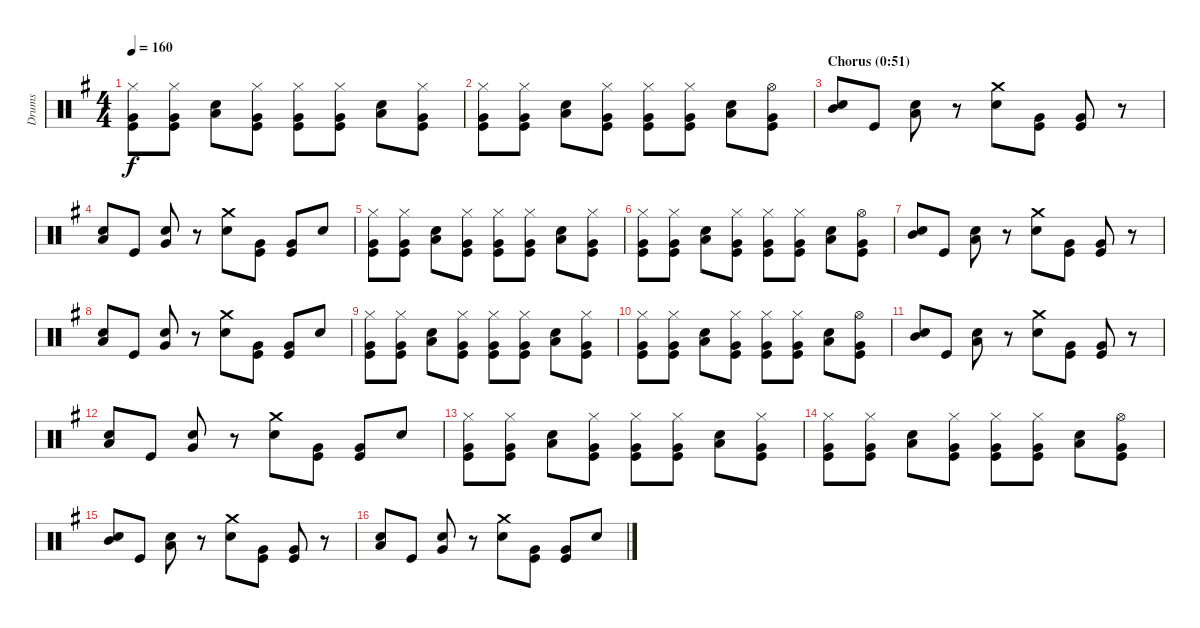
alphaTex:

\track ("Drums" "Drums") {instrument percussion}
\staff {score}
\articulation defaults
\ts (4 4)
\tempo 160
\clef neutral
\ks g
("Hi-Hat (closed)" "Very Low Tom (hit)" "Kick (hit)").8{dy f} ("Hi-Hat (closed)" "Very Low Tom (hit)" "Kick (hit)").8 ("Snare (hit) 2" "Low Tom (hit)").8 ("Hi-Hat (closed)" "Very Low Tom (hit)" "Kick (hit)").8 ("Hi-Hat (closed)" "Very Low Tom (hit)" "Kick (hit)").8 ("Hi-Hat (closed)" "Very Low Tom (hit)" "Kick (hit)").8 ("Snare (hit) 2" "Low Tom (hit)").8 ("Hi-Hat (closed)" "Very Low Tom (hit)" "Kick (hit)").8 |
("Hi-Hat (closed)" "Very Low Tom (hit)" "Kick (hit)").8 ("Hi-Hat (closed)" "Very Low Tom (hit)" "Kick (hit)").8 ("Snare (hit) 2" "Low Tom (hit)").8 ("Hi-Hat (closed)" "Very Low Tom (hit)" "Kick (hit)").8 ("Hi-Hat (closed)" "Very Low Tom (hit)" "Kick (hit)").8 ("Hi-Hat (closed)" "Very Low Tom (hit)" "Kick (hit)").8 ("Snare (hit) 2" "Low Tom (hit)").8 ("Hi-Hat (open)" "Very Low Tom (hit)" "Kick (hit)").8 |
\section ("" "Chorus (0:51)")
("Snare (hit) 2" "Mid Tom (hit)").8 "Kick (hit)".8 ("Snare (hit) 2" "Low Tom (hit)").8 r.8 ("Crash medium (hit)" "Snare (hit) 2").8 ("Very Low Tom (hit)" "Kick (hit)").8 ("Very Low Tom (hit)" "Kick (hit)").8 r.8 |
("Snare (hit) 2" "Low Tom (hit)").8 "Kick (hit)".8 ("Snare (hit) 2" "Very Low Tom (hit)").8 r.8 ("Crash medium (hit)" "Snare (hit) 2").8 ("Very Low Tom (hit)" "Kick (hit)").8 ("Very Low Tom (hit)" "Kick (hit)").8 "Snare (hit) 2".8 |
("Hi-Hat (closed)" "Very Low Tom (hit)" "Kick (hit)").8 ("Hi-Hat (closed)" "Very Low Tom (hit)" "Kick (hit)").8 ("Snare (hit) 2" "Low Tom (hit)").8 ("Hi-Hat (closed)" "Very Low Tom (hit)" "Kick (hit)").8 ("Hi-Hat (closed)" "Very Low Tom (hit)" "Kick (hit)").8 ("Hi-Hat (closed)" "Very Low Tom (hit)" "Kick (hit)").8 ("Snare (hit) 2" "Low Tom (hit)").8 ("Hi-Hat (closed)" "Very Low Tom (hit)" "Kick (hit)").8 |
("Hi-Hat (closed)" "Very Low Tom (hit)" "Kick (hit)").8 ("Hi-Hat (closed)" "Very Low Tom (hit)" "Kick (hit)").8 ("Snare (hit) 2" "Low Tom (hit)").8 ("Hi-Hat (closed)" "Very Low Tom (hit)" "Kick (hit)").8 ("Hi-Hat (closed)" "Very Low Tom (hit)" "Kick (hit)").8 ("Hi-Hat (closed)" "Very Low Tom (hit)" "Kick (hit)").8 ("Snare (hit) 2" "Low Tom (hit)").8 ("Hi-Hat (open)" "Very Low Tom (hit)" "Kick (hit)").8 |
("Snare (hit) 2" "Mid Tom (hit)").8 "Kick (hit)".8 ("Snare (hit) 2" "Low Tom (hit)").8 r.8 ("Crash medium (hit)" "Snare (hit) 2").8 ("Very Low Tom (hit)" "Kick (hit)").8 ("Very Low Tom (hit)" "Kick (hit)").8 r.8 |
("Snare (hit) 2" "Low Tom (hit)").8 "Kick (hit)".8 ("Snare (hit) 2" "Very Low Tom (hit)").8 r.8 ("Crash medium (hit)" "Snare (hit) 2").8 ("Very Low Tom (hit)" "Kick (hit)").8 ("Very Low Tom (hit)" "Kick (hit)").8 "Snare (hit) 2".8 |
("Hi-Hat (closed)" "Very Low Tom (hit)" "Kick (hit)").8 ("Hi-Hat (closed)" "Very Low Tom (hit)" "Kick (hit)").8 ("Snare (hit) 2" "Low Tom (hit)").8 ("Hi-Hat (closed)" "Very Low Tom (hit)" "Kick (hit)").8 ("Hi-Hat (closed)" "Very Low Tom (hit)" "Kick (hit)").8 ("Hi-Hat (closed)" "Very Low Tom (hit)" "Kick (hit)").8 ("Snare (hit) 2" "Low Tom (hit)").8 ("Hi-Hat (closed)" "Very Low Tom (hit)" "Kick (hit)").8 |
("Hi-Hat (closed)" "Very Low Tom (hit)" "Kick (hit)").8 ("Hi-Hat (closed)" "Very Low Tom (hit)" "Kick (hit)").8 ("Snare (hit) 2" "Low Tom (hit)").8 ("Hi-Hat (closed)" "Very Low Tom (hit)" "Kick (hit)").8 ("Hi-Hat (closed)" "Very Low Tom (hit)" "Kick (hit)").8 ("Hi-Hat (closed)" "Very Low Tom (hit)" "Kick (hit)").8 ("Snare (hit) 2" "Low Tom (hit)").8 ("Hi-Hat (open)" "Very Low Tom (hit)" "Kick (hit)").8 |
("Snare (hit) 2" "Mid Tom (hit)").8 "Kick (hit)".8 ("Snare (hit) 2" "Low Tom (hit)").8 r.8 ("Crash medium (hit)" "Snare (hit) 2").8 ("Very Low Tom (hit)" "Kick (hit)").8 ("Very Low Tom (hit)" "Kick (hit)").8 r.8 |
("Snare (hit) 2" "Low Tom (hit)").8 "Kick (hit)".8 ("Snare (hit) 2" "Very Low Tom (hit)").8 r.8 ("Crash medium (hit)" "Snare (hit) 2").8 ("Very Low Tom (hit)" "Kick (hit)").8 ("Very Low Tom (hit)" "Kick (hit)").8 "Snare (hit) 2".8 |
("Hi-Hat (closed)" "Very Low Tom (hit)" "Kick (hit)").8 ("Hi-Hat (closed)" "Very Low Tom (hit)" "Kick (hit)").8 ("Snare (hit) 2" "Low Tom (hit)").8 ("Hi-Hat (closed)" "Very Low Tom (hit)" "Kick (hit)").8 ("Hi-Hat (closed)" "Very Low Tom (hit)" "Kick (hit)").8 ("Hi-Hat (closed)" "Very Low Tom (hit)" "Kick (hit)").8 ("Snare (hit) 2" "Low Tom (hit)").8 ("Hi-Hat (closed)" "Very Low Tom (hit)" "Kick (hit)").8 |
("Hi-Hat (closed)" "Very Low Tom (hit)" "Kick (hit)").8 ("Hi-Hat (closed)" "Very Low Tom (hit)" "Kick (hit)").8 ("Snare (hit) 2" "Low Tom (hit)").8 ("Hi-Hat (closed)" "Very Low Tom (hit)" "Kick (hit)").8 ("Hi-Hat (closed)" "Very Low Tom (hit)" "Kick (hit)").8 ("Hi-Hat (closed)" "Very Low Tom (hit)" "Kick (hit)").8 ("Snare (hit) 2" "Low Tom (hit)").8 ("Hi-Hat (open)" "Very Low Tom (hit)" "Kick (hit)").8 |
("Snare (hit) 2" "Mid Tom (hit)").8 "Kick (hit)".8 ("Snare (hit) 2" "Low Tom (hit)").8 r.8 ("Crash medium (hit)" "Snare (hit) 2").8 ("Very Low Tom (hit)" "Kick (hit)").8 ("Very Low Tom (hit)" "Kick (hit)").8 r.8 |
("Snare (hit) 2" "Low Tom (hit)").8 "Kick (hit)".8 ("Snare (hit) 2" "Very Low Tom (hit)").8 r.8 ("Crash medium (hit)" "Snare (hit) 2").8 ("Very Low Tom (hit)" "Kick (hit)").8 ("Very Low Tom (hit)" "Kick (hit)").8 "Snare (hit) 2".8
